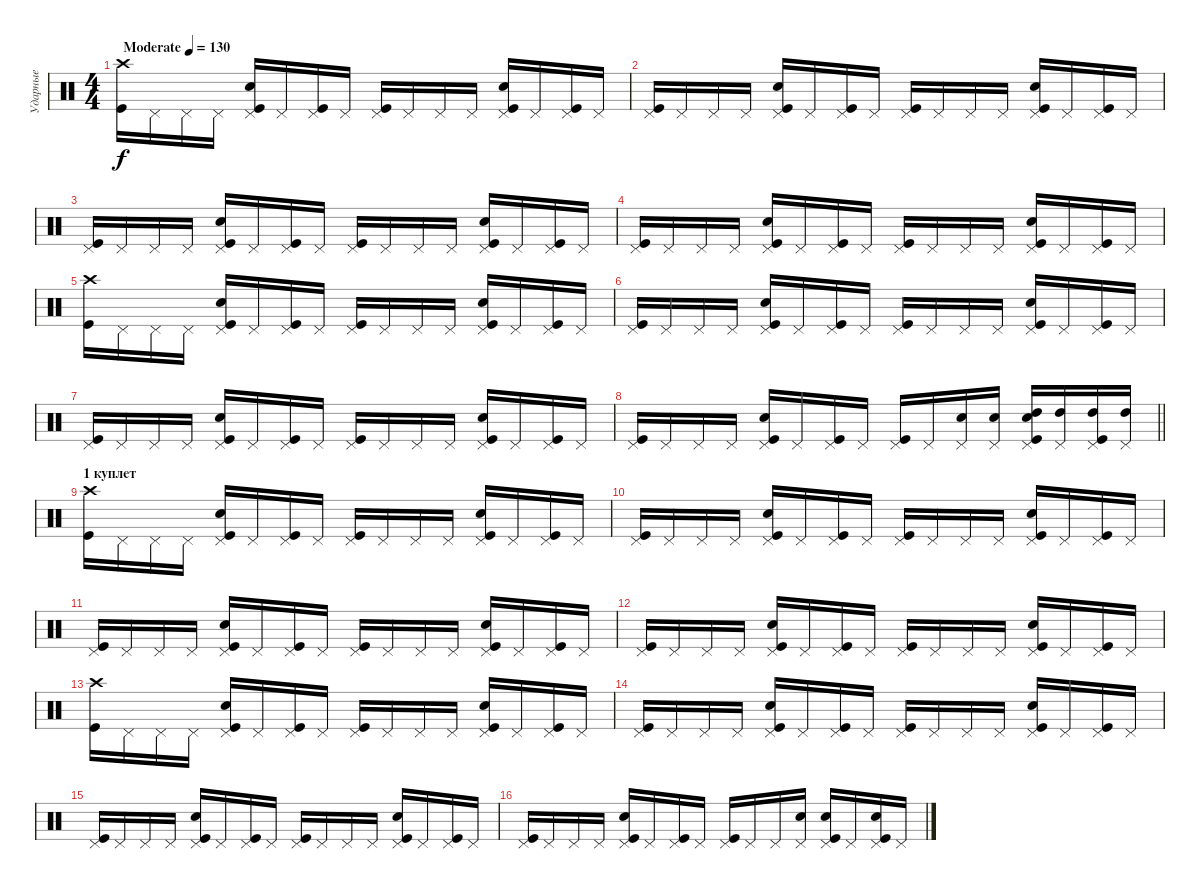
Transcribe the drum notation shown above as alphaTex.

\track ("Ударные" "Ударные") {instrument percussion}
\staff {score}
\articulation defaults
\ts (4 4)
\tempo (130 "Moderate")
\clef neutral
\ks c
("Crash high (hit)" "Kick (hit)").16{dy f} "Pedal Hi-Hat (hit)".16 "Pedal Hi-Hat (hit)".16 "Pedal Hi-Hat (hit)".16 ("Pedal Hi-Hat (hit)" "Kick (hit)" "Snare (hit) 2").16 "Pedal Hi-Hat (hit)".16 ("Pedal Hi-Hat (hit)" "Kick (hit)").16 "Pedal Hi-Hat (hit)".16 ("Pedal Hi-Hat (hit)" "Kick (hit)").16 "Pedal Hi-Hat (hit)".16 "Pedal Hi-Hat (hit)".16 "Pedal Hi-Hat (hit)".16 ("Pedal Hi-Hat (hit)" "Kick (hit)" "Snare (hit) 2").16 "Pedal Hi-Hat (hit)".16 ("Pedal Hi-Hat (hit)" "Kick (hit)").16 "Pedal Hi-Hat (hit)".16 |
("Pedal Hi-Hat (hit)" "Kick (hit)").16 "Pedal Hi-Hat (hit)".16 "Pedal Hi-Hat (hit)".16 "Pedal Hi-Hat (hit)".16 ("Pedal Hi-Hat (hit)" "Kick (hit)" "Snare (hit) 2").16 "Pedal Hi-Hat (hit)".16 ("Pedal Hi-Hat (hit)" "Kick (hit)").16 "Pedal Hi-Hat (hit)".16 ("Pedal Hi-Hat (hit)" "Kick (hit)").16 "Pedal Hi-Hat (hit)".16 "Pedal Hi-Hat (hit)".16 "Pedal Hi-Hat (hit)".16 ("Pedal Hi-Hat (hit)" "Kick (hit)" "Snare (hit) 2").16 "Pedal Hi-Hat (hit)".16 ("Pedal Hi-Hat (hit)" "Kick (hit)").16 "Pedal Hi-Hat (hit)".16 |
("Pedal Hi-Hat (hit)" "Kick (hit)").16 "Pedal Hi-Hat (hit)".16 "Pedal Hi-Hat (hit)".16 "Pedal Hi-Hat (hit)".16 ("Pedal Hi-Hat (hit)" "Kick (hit)" "Snare (hit) 2").16 "Pedal Hi-Hat (hit)".16 ("Pedal Hi-Hat (hit)" "Kick (hit)").16 "Pedal Hi-Hat (hit)".16 ("Pedal Hi-Hat (hit)" "Kick (hit)").16 "Pedal Hi-Hat (hit)".16 "Pedal Hi-Hat (hit)".16 "Pedal Hi-Hat (hit)".16 ("Pedal Hi-Hat (hit)" "Kick (hit)" "Snare (hit) 2").16 "Pedal Hi-Hat (hit)".16 ("Pedal Hi-Hat (hit)" "Kick (hit)").16 "Pedal Hi-Hat (hit)".16 |
("Pedal Hi-Hat (hit)" "Kick (hit)").16 "Pedal Hi-Hat (hit)".16 "Pedal Hi-Hat (hit)".16 "Pedal Hi-Hat (hit)".16 ("Pedal Hi-Hat (hit)" "Kick (hit)" "Snare (hit) 2").16 "Pedal Hi-Hat (hit)".16 ("Pedal Hi-Hat (hit)" "Kick (hit)").16 "Pedal Hi-Hat (hit)".16 ("Pedal Hi-Hat (hit)" "Kick (hit)").16 "Pedal Hi-Hat (hit)".16 "Pedal Hi-Hat (hit)".16 "Pedal Hi-Hat (hit)".16 ("Pedal Hi-Hat (hit)" "Kick (hit)" "Snare (hit) 2").16 "Pedal Hi-Hat (hit)".16 ("Pedal Hi-Hat (hit)" "Kick (hit)").16 "Pedal Hi-Hat (hit)".16 |
("Crash high (hit)" "Kick (hit)").16 "Pedal Hi-Hat (hit)".16 "Pedal Hi-Hat (hit)".16 "Pedal Hi-Hat (hit)".16 ("Pedal Hi-Hat (hit)" "Kick (hit)" "Snare (hit) 2").16 "Pedal Hi-Hat (hit)".16 ("Pedal Hi-Hat (hit)" "Kick (hit)").16 "Pedal Hi-Hat (hit)".16 ("Pedal Hi-Hat (hit)" "Kick (hit)").16 "Pedal Hi-Hat (hit)".16 "Pedal Hi-Hat (hit)".16 "Pedal Hi-Hat (hit)".16 ("Pedal Hi-Hat (hit)" "Kick (hit)" "Snare (hit) 2").16 "Pedal Hi-Hat (hit)".16 ("Pedal Hi-Hat (hit)" "Kick (hit)").16 "Pedal Hi-Hat (hit)".16 |
("Pedal Hi-Hat (hit)" "Kick (hit)").16 "Pedal Hi-Hat (hit)".16 "Pedal Hi-Hat (hit)".16 "Pedal Hi-Hat (hit)".16 ("Pedal Hi-Hat (hit)" "Kick (hit)" "Snare (hit) 2").16 "Pedal Hi-Hat (hit)".16 ("Pedal Hi-Hat (hit)" "Kick (hit)").16 "Pedal Hi-Hat (hit)".16 ("Pedal Hi-Hat (hit)" "Kick (hit)").16 "Pedal Hi-Hat (hit)".16 "Pedal Hi-Hat (hit)".16 "Pedal Hi-Hat (hit)".16 ("Pedal Hi-Hat (hit)" "Kick (hit)" "Snare (hit) 2").16 "Pedal Hi-Hat (hit)".16 ("Pedal Hi-Hat (hit)" "Kick (hit)").16 "Pedal Hi-Hat (hit)".16 |
("Pedal Hi-Hat (hit)" "Kick (hit)").16 "Pedal Hi-Hat (hit)".16 "Pedal Hi-Hat (hit)".16 "Pedal Hi-Hat (hit)".16 ("Pedal Hi-Hat (hit)" "Kick (hit)" "Snare (hit) 2").16 "Pedal Hi-Hat (hit)".16 ("Pedal Hi-Hat (hit)" "Kick (hit)").16 "Pedal Hi-Hat (hit)".16 ("Pedal Hi-Hat (hit)" "Kick (hit)").16 "Pedal Hi-Hat (hit)".16 "Pedal Hi-Hat (hit)".16 "Pedal Hi-Hat (hit)".16 ("Pedal Hi-Hat (hit)" "Kick (hit)" "Snare (hit) 2").16 "Pedal Hi-Hat (hit)".16 ("Pedal Hi-Hat (hit)" "Kick (hit)").16 "Pedal Hi-Hat (hit)".16 |
\barLineRight lightlight
("Pedal Hi-Hat (hit)" "Kick (hit)").16 "Pedal Hi-Hat (hit)".16 "Pedal Hi-Hat (hit)".16 "Pedal Hi-Hat (hit)".16 ("Pedal Hi-Hat (hit)" "Kick (hit)" "Snare (hit) 2").16 "Pedal Hi-Hat (hit)".16 ("Pedal Hi-Hat (hit)" "Kick (hit)").16 "Pedal Hi-Hat (hit)".16 ("Pedal Hi-Hat (hit)" "Kick (hit)").16 "Pedal Hi-Hat (hit)".16 ("Pedal Hi-Hat (hit)" "Snare (hit) 2").16 ("Pedal Hi-Hat (hit)" "Snare (hit) 2").16 ("Pedal Hi-Hat (hit)" "Kick (hit)" "Snare (hit) 2" "High Tom (hit)").16 ("Pedal Hi-Hat (hit)" "High Tom (hit)").16 ("Pedal Hi-Hat (hit)" "Kick (hit)" "High Tom (hit)").16 ("Pedal Hi-Hat (hit)" "High Tom (hit)").16 |
\section ("" "1 куплет")
("Crash high (hit)" "Kick (hit)").16 "Pedal Hi-Hat (hit)".16 "Pedal Hi-Hat (hit)".16 "Pedal Hi-Hat (hit)".16 ("Pedal Hi-Hat (hit)" "Kick (hit)" "Snare (hit) 2").16 "Pedal Hi-Hat (hit)".16 ("Pedal Hi-Hat (hit)" "Kick (hit)").16 "Pedal Hi-Hat (hit)".16 ("Pedal Hi-Hat (hit)" "Kick (hit)").16 "Pedal Hi-Hat (hit)".16 "Pedal Hi-Hat (hit)".16 "Pedal Hi-Hat (hit)".16 ("Pedal Hi-Hat (hit)" "Kick (hit)" "Snare (hit) 2").16 "Pedal Hi-Hat (hit)".16 ("Pedal Hi-Hat (hit)" "Kick (hit)").16 "Pedal Hi-Hat (hit)".16 |
("Pedal Hi-Hat (hit)" "Kick (hit)").16 "Pedal Hi-Hat (hit)".16 "Pedal Hi-Hat (hit)".16 "Pedal Hi-Hat (hit)".16 ("Pedal Hi-Hat (hit)" "Kick (hit)" "Snare (hit) 2").16 "Pedal Hi-Hat (hit)".16 ("Pedal Hi-Hat (hit)" "Kick (hit)").16 "Pedal Hi-Hat (hit)".16 ("Pedal Hi-Hat (hit)" "Kick (hit)").16 "Pedal Hi-Hat (hit)".16 "Pedal Hi-Hat (hit)".16 "Pedal Hi-Hat (hit)".16 ("Pedal Hi-Hat (hit)" "Kick (hit)" "Snare (hit) 2").16 "Pedal Hi-Hat (hit)".16 ("Pedal Hi-Hat (hit)" "Kick (hit)").16 "Pedal Hi-Hat (hit)".16 |
("Pedal Hi-Hat (hit)" "Kick (hit)").16 "Pedal Hi-Hat (hit)".16 "Pedal Hi-Hat (hit)".16 "Pedal Hi-Hat (hit)".16 ("Pedal Hi-Hat (hit)" "Kick (hit)" "Snare (hit) 2").16 "Pedal Hi-Hat (hit)".16 ("Pedal Hi-Hat (hit)" "Kick (hit)").16 "Pedal Hi-Hat (hit)".16 ("Pedal Hi-Hat (hit)" "Kick (hit)").16 "Pedal Hi-Hat (hit)".16 "Pedal Hi-Hat (hit)".16 "Pedal Hi-Hat (hit)".16 ("Pedal Hi-Hat (hit)" "Kick (hit)" "Snare (hit) 2").16 "Pedal Hi-Hat (hit)".16 ("Pedal Hi-Hat (hit)" "Kick (hit)").16 "Pedal Hi-Hat (hit)".16 |
("Pedal Hi-Hat (hit)" "Kick (hit)").16 "Pedal Hi-Hat (hit)".16 "Pedal Hi-Hat (hit)".16 "Pedal Hi-Hat (hit)".16 ("Pedal Hi-Hat (hit)" "Kick (hit)" "Snare (hit) 2").16 "Pedal Hi-Hat (hit)".16 ("Pedal Hi-Hat (hit)" "Kick (hit)").16 "Pedal Hi-Hat (hit)".16 ("Pedal Hi-Hat (hit)" "Kick (hit)").16 "Pedal Hi-Hat (hit)".16 "Pedal Hi-Hat (hit)".16 "Pedal Hi-Hat (hit)".16 ("Pedal Hi-Hat (hit)" "Kick (hit)" "Snare (hit) 2").16 "Pedal Hi-Hat (hit)".16 ("Pedal Hi-Hat (hit)" "Kick (hit)").16 "Pedal Hi-Hat (hit)".16 |
("Crash high (hit)" "Kick (hit)").16 "Pedal Hi-Hat (hit)".16 "Pedal Hi-Hat (hit)".16 "Pedal Hi-Hat (hit)".16 ("Pedal Hi-Hat (hit)" "Kick (hit)" "Snare (hit) 2").16 "Pedal Hi-Hat (hit)".16 ("Pedal Hi-Hat (hit)" "Kick (hit)").16 "Pedal Hi-Hat (hit)".16 ("Pedal Hi-Hat (hit)" "Kick (hit)").16 "Pedal Hi-Hat (hit)".16 "Pedal Hi-Hat (hit)".16 "Pedal Hi-Hat (hit)".16 ("Pedal Hi-Hat (hit)" "Kick (hit)" "Snare (hit) 2").16 "Pedal Hi-Hat (hit)".16 ("Pedal Hi-Hat (hit)" "Kick (hit)").16 "Pedal Hi-Hat (hit)".16 |
("Pedal Hi-Hat (hit)" "Kick (hit)").16 "Pedal Hi-Hat (hit)".16 "Pedal Hi-Hat (hit)".16 "Pedal Hi-Hat (hit)".16 ("Pedal Hi-Hat (hit)" "Kick (hit)" "Snare (hit) 2").16 "Pedal Hi-Hat (hit)".16 ("Pedal Hi-Hat (hit)" "Kick (hit)").16 "Pedal Hi-Hat (hit)".16 ("Pedal Hi-Hat (hit)" "Kick (hit)").16 "Pedal Hi-Hat (hit)".16 "Pedal Hi-Hat (hit)".16 "Pedal Hi-Hat (hit)".16 ("Pedal Hi-Hat (hit)" "Kick (hit)" "Snare (hit) 2").16 "Pedal Hi-Hat (hit)".16 ("Pedal Hi-Hat (hit)" "Kick (hit)").16 "Pedal Hi-Hat (hit)".16 |
("Pedal Hi-Hat (hit)" "Kick (hit)").16 "Pedal Hi-Hat (hit)".16 "Pedal Hi-Hat (hit)".16 "Pedal Hi-Hat (hit)".16 ("Pedal Hi-Hat (hit)" "Kick (hit)" "Snare (hit) 2").16 "Pedal Hi-Hat (hit)".16 ("Pedal Hi-Hat (hit)" "Kick (hit)").16 "Pedal Hi-Hat (hit)".16 ("Pedal Hi-Hat (hit)" "Kick (hit)").16 "Pedal Hi-Hat (hit)".16 "Pedal Hi-Hat (hit)".16 "Pedal Hi-Hat (hit)".16 ("Pedal Hi-Hat (hit)" "Kick (hit)" "Snare (hit) 2").16 "Pedal Hi-Hat (hit)".16 ("Pedal Hi-Hat (hit)" "Kick (hit)").16 "Pedal Hi-Hat (hit)".16 |
("Pedal Hi-Hat (hit)" "Kick (hit)").16 "Pedal Hi-Hat (hit)".16 "Pedal Hi-Hat (hit)".16 "Pedal Hi-Hat (hit)".16 ("Pedal Hi-Hat (hit)" "Kick (hit)" "Snare (hit) 2").16 "Pedal Hi-Hat (hit)".16 ("Pedal Hi-Hat (hit)" "Kick (hit)").16 "Pedal Hi-Hat (hit)".16 ("Pedal Hi-Hat (hit)" "Kick (hit)").16 "Pedal Hi-Hat (hit)".16 "Pedal Hi-Hat (hit)".16 ("Pedal Hi-Hat (hit)" "Snare (hit) 2").16 ("Pedal Hi-Hat (hit)" "Kick (hit)" "Snare (hit) 2").16 "Pedal Hi-Hat (hit)".16 ("Pedal Hi-Hat (hit)" "Kick (hit)" "Snare (hit) 2").16 "Pedal Hi-Hat (hit)".16
